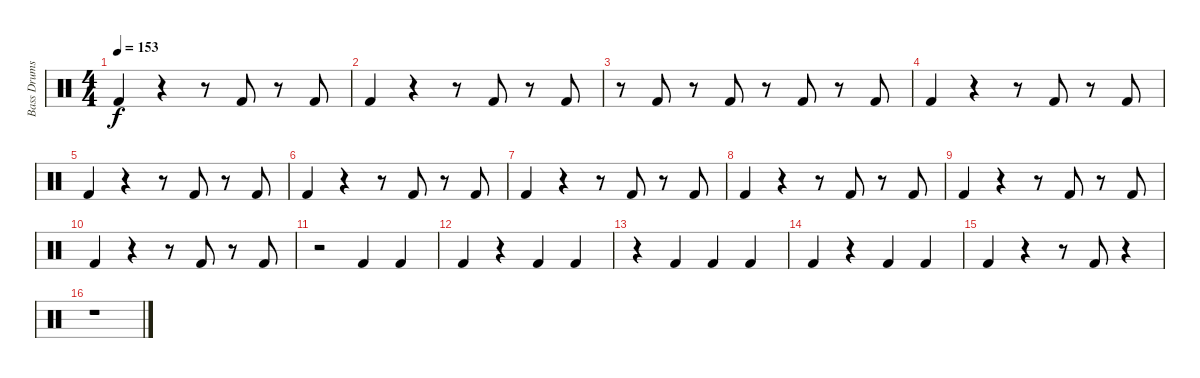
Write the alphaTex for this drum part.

\track ("Bass Drums" "Bass Drums") {instrument percussion}
\staff {score}
\articulation defaults
\ts (4 4)
\tempo 153
\clef neutral
\ks c "Kick (hit) 2".4{dy f}
r.4 r.8 "Kick (hit) 2".8 r.8 "Kick (hit) 2".8 |
"Kick (hit) 2".4 r.4 r.8 "Kick (hit) 2".8 r.8 "Kick (hit) 2".8 |
r.8 "Kick (hit) 2".8 r.8 "Kick (hit) 2".8 r.8 "Kick (hit) 2".8 r.8 "Kick (hit) 2".8 |
"Kick (hit) 2".4 r.4 r.8 "Kick (hit) 2".8 r.8 "Kick (hit) 2".8 |
"Kick (hit) 2".4 r.4 r.8 "Kick (hit) 2".8 r.8 "Kick (hit) 2".8 |
"Kick (hit) 2".4 r.4 r.8 "Kick (hit) 2".8 r.8 "Kick (hit) 2".8 |
"Kick (hit) 2".4 r.4 r.8 "Kick (hit) 2".8 r.8 "Kick (hit) 2".8 |
"Kick (hit) 2".4 r.4 r.8 "Kick (hit) 2".8 r.8 "Kick (hit) 2".8 |
"Kick (hit) 2".4 r.4 r.8 "Kick (hit) 2".8 r.8 "Kick (hit) 2".8 |
"Kick (hit) 2".4 r.4 r.8 "Kick (hit) 2".8 r.8 "Kick (hit) 2".8 |
r.2 "Kick (hit) 2".4 "Kick (hit) 2".4 |
"Kick (hit) 2".4 r.4 "Kick (hit) 2".4 "Kick (hit) 2".4 |
r.4 "Kick (hit) 2".4 "Kick (hit) 2".4 "Kick (hit) 2".4 |
"Kick (hit) 2".4 r.4 "Kick (hit) 2".4 "Kick (hit) 2".4 |
"Kick (hit) 2".4 r.4 r.8 "Kick (hit) 2".8 r.4 |
r.1
